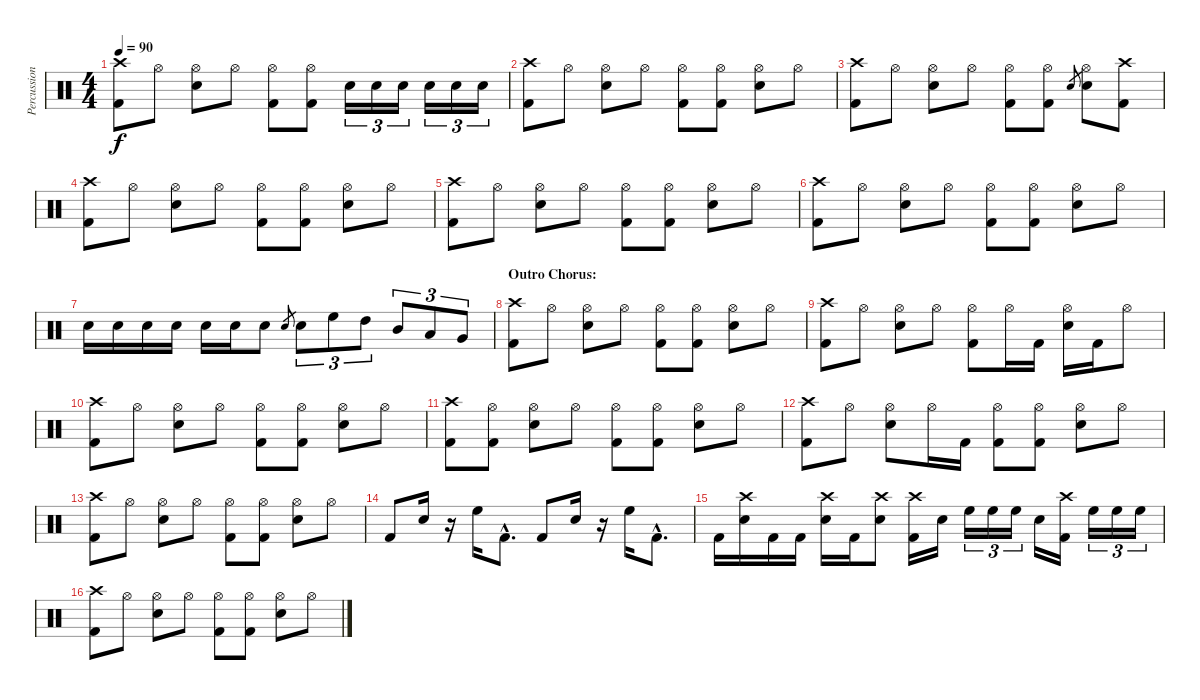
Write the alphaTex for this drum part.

\track ("Percussion" "Percussion") {instrument percussion}
\staff {score}
\articulation defaults
\ts (4 4)
\tempo 90
\clef neutral
\ks c
("Crash high (hit)" "Kick (hit) 2").8{dy f} "Hi-Hat (open)".8 ("Hi-Hat (open)" "Electric Snare (hit)").8 "Hi-Hat (open)".8 ("Hi-Hat (open)" "Kick (hit) 2").8 ("Hi-Hat (open)" "Kick (hit) 2").8 "Electric Snare (hit)".16{tu (3 2)} "Electric Snare (hit)".16{tu (3 2)} "Electric Snare (hit)".16{tu (3 2)} "Electric Snare (hit)".16{tu (3 2)} "Electric Snare (hit)".16{tu (3 2)} "Electric Snare (hit)".16{tu (3 2)} |
("Crash high (hit)" "Kick (hit) 2").8 "Hi-Hat (open)".8 ("Hi-Hat (open)" "Electric Snare (hit)").8 "Hi-Hat (open)".8 ("Hi-Hat (open)" "Kick (hit) 2").8 ("Hi-Hat (open)" "Kick (hit) 2").8 ("Hi-Hat (open)" "Electric Snare (hit)").8 "Hi-Hat (open)".8 |
("Crash high (hit)" "Kick (hit) 2").8 "Hi-Hat (open)".8 ("Hi-Hat (open)" "Electric Snare (hit)").8 "Hi-Hat (open)".8 ("Hi-Hat (open)" "Kick (hit) 2").8 ("Hi-Hat (open)" "Kick (hit) 2").8 "Electric Snare (hit)".8{gr} ("Hi-Hat (open)" "Electric Snare (hit)").8 ("Crash high (hit)" "Kick (hit) 2").8 |
("Crash high (hit)" "Kick (hit) 2").8 "Hi-Hat (open)".8 ("Hi-Hat (open)" "Electric Snare (hit)").8 "Hi-Hat (open)".8 ("Hi-Hat (open)" "Kick (hit) 2").8 ("Hi-Hat (open)" "Kick (hit) 2").8 ("Hi-Hat (open)" "Electric Snare (hit)").8 "Hi-Hat (open)".8 |
("Crash high (hit)" "Kick (hit) 2").8 "Hi-Hat (open)".8 ("Hi-Hat (open)" "Electric Snare (hit)").8 "Hi-Hat (open)".8 ("Hi-Hat (open)" "Kick (hit) 2").8 ("Hi-Hat (open)" "Kick (hit) 2").8 ("Hi-Hat (open)" "Electric Snare (hit)").8 "Hi-Hat (open)".8 |
("Crash high (hit)" "Kick (hit) 2").8 "Hi-Hat (open)".8 ("Hi-Hat (open)" "Electric Snare (hit)").8 "Hi-Hat (open)".8 ("Hi-Hat (open)" "Kick (hit) 2").8 ("Hi-Hat (open)" "Kick (hit) 2").8 ("Hi-Hat (open)" "Electric Snare (hit)").8 "Hi-Hat (open)".8 |
"Electric Snare (hit)".16 "Electric Snare (hit)".16 "Electric Snare (hit)".16 "Electric Snare (hit)".16 "Electric Snare (hit)".16 "Electric Snare (hit)".16 "Electric Snare (hit)".8 "Electric Snare (hit)".8{gr} "Electric Snare (hit)".8{tu (3 2)} "High Floor Tom (hit)".8{tu (3 2)} "High Tom (hit)".8{tu (3 2)} "Mid Tom (hit)".8{tu (3 2)} "Low Tom (hit)".8{tu (3 2)} "Very Low Tom (hit)".8{tu (3 2)} |
\section ("" "Outro Chorus:")
("Crash high (hit)" "Kick (hit) 2").8 "Hi-Hat (open)".8 ("Hi-Hat (open)" "Electric Snare (hit)").8 "Hi-Hat (open)".8 ("Hi-Hat (open)" "Kick (hit) 2").8 ("Hi-Hat (open)" "Kick (hit) 2").8 ("Hi-Hat (open)" "Electric Snare (hit)").8 "Hi-Hat (open)".8 |
("Crash high (hit)" "Kick (hit) 2").8 "Hi-Hat (open)".8 ("Hi-Hat (open)" "Electric Snare (hit)").8 "Hi-Hat (open)".8 ("Hi-Hat (open)" "Kick (hit) 2").8 "Hi-Hat (open)".16 "Kick (hit) 2".16 ("Hi-Hat (open)" "Electric Snare (hit)").16 "Kick (hit) 2".16 "Hi-Hat (open)".8 |
("Crash high (hit)" "Kick (hit) 2").8 "Hi-Hat (open)".8 ("Hi-Hat (open)" "Electric Snare (hit)").8 "Hi-Hat (open)".8 ("Hi-Hat (open)" "Kick (hit) 2").8 ("Hi-Hat (open)" "Kick (hit) 2").8 ("Hi-Hat (open)" "Electric Snare (hit)").8 "Hi-Hat (open)".8 |
("Crash high (hit)" "Kick (hit) 2").8 ("Hi-Hat (open)" "Kick (hit) 2").8 ("Hi-Hat (open)" "Electric Snare (hit)").8 "Hi-Hat (open)".8 ("Hi-Hat (open)" "Kick (hit) 2").8 ("Hi-Hat (open)" "Kick (hit) 2").8 ("Hi-Hat (open)" "Electric Snare (hit)").8 "Hi-Hat (open)".8 |
("Crash high (hit)" "Kick (hit) 2").8 "Hi-Hat (open)".8 ("Hi-Hat (open)" "Electric Snare (hit)").8 "Hi-Hat (open)".16 "Kick (hit) 2".16 ("Hi-Hat (open)" "Kick (hit) 2").8 ("Hi-Hat (open)" "Kick (hit) 2").8 ("Hi-Hat (open)" "Electric Snare (hit)").8 "Hi-Hat (open)".8 |
("Crash high (hit)" "Kick (hit) 2").8 "Hi-Hat (open)".8 ("Hi-Hat (open)" "Electric Snare (hit)").8 "Hi-Hat (open)".8 ("Hi-Hat (open)" "Kick (hit) 2").8 ("Hi-Hat (open)" "Kick (hit) 2").8 ("Hi-Hat (open)" "Electric Snare (hit)").8 "Hi-Hat (open)".8 |
"Kick (hit) 2".8 "Electric Snare (hit)".16 r.16 "High Floor Tom (hit)".16 "Kick (hit) 2"{hac}.8{d} "Kick (hit) 2".8 "Electric Snare (hit)".16 r.16 "High Floor Tom (hit)".16 "Kick (hit) 2"{hac}.8{d} |
"Kick (hit) 2".16 ("Crash high (hit)" "Electric Snare (hit)").16 "Kick (hit) 2".16 "Kick (hit) 2".16 ("Crash high (hit)" "Electric Snare (hit)").16 "Kick (hit) 2".16 ("Crash high (hit)" "Electric Snare (hit)").8 ("Crash high (hit)" "Kick (hit) 2").16 "Electric Snare (hit)".16 "High Floor Tom (hit)".16{tu (3 2)} "High Floor Tom (hit)".16{tu (3 2)} "High Floor Tom (hit)".16{tu (3 2)} "Electric Snare (hit)".16 ("Crash high (hit)" "Kick (hit) 2").16 "High Floor Tom (hit)".16{tu (3 2)} "High Floor Tom (hit)".16{tu (3 2)} "High Floor Tom (hit)".16{tu (3 2)} |
("Crash high (hit)" "Kick (hit) 2").8 "Hi-Hat (open)".8 ("Hi-Hat (open)" "Electric Snare (hit)").8 "Hi-Hat (open)".8 ("Hi-Hat (open)" "Kick (hit) 2").8 ("Hi-Hat (open)" "Kick (hit) 2").8 ("Hi-Hat (open)" "Electric Snare (hit)").8 "Hi-Hat (open)".8
